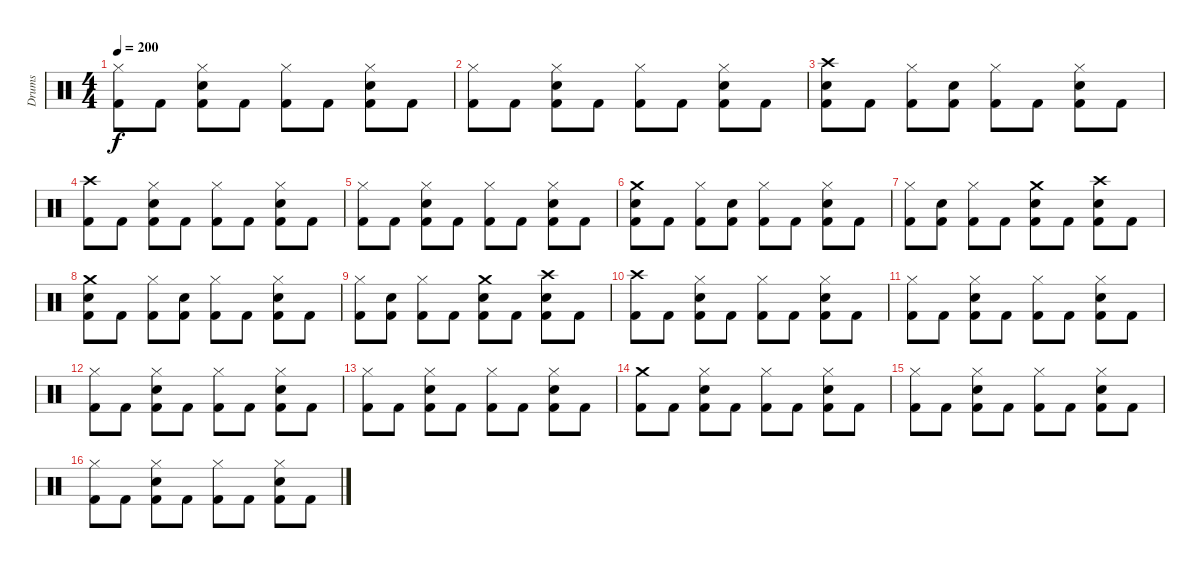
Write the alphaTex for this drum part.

\track ("Drums" "Drums") {instrument percussion}
\staff {score}
\articulation defaults
\ts (4 4)
\tempo 200
\clef neutral
\ks c
("Hi-Hat (closed)" "Kick (hit) 2").8{dy f} "Kick (hit) 2".8 ("Hi-Hat (closed)" "Snare (hit) 2" "Kick (hit) 2").8 "Kick (hit) 2".8 ("Hi-Hat (closed)" "Kick (hit) 2").8 "Kick (hit) 2".8 ("Hi-Hat (closed)" "Snare (hit) 2" "Kick (hit) 2").8 "Kick (hit) 2".8 |
("Hi-Hat (closed)" "Kick (hit) 2").8 "Kick (hit) 2".8 ("Hi-Hat (closed)" "Snare (hit) 2" "Kick (hit) 2").8 "Kick (hit) 2".8 ("Hi-Hat (closed)" "Kick (hit) 2").8 "Kick (hit) 2".8 ("Hi-Hat (closed)" "Snare (hit) 2" "Kick (hit) 2").8 "Kick (hit) 2".8 |
("Crash high (hit)" "Snare (hit) 2" "Kick (hit) 2").8 "Kick (hit) 2".8 ("Hi-Hat (closed)" "Kick (hit) 2").8 ("Snare (hit) 2" "Kick (hit) 2").8 ("Hi-Hat (closed)" "Kick (hit) 2").8 "Kick (hit) 2".8 ("Hi-Hat (closed)" "Snare (hit) 2" "Kick (hit) 2").8 "Kick (hit) 2".8 |
("Crash high (hit)" "Kick (hit) 2").8 "Kick (hit) 2".8 ("Hi-Hat (closed)" "Snare (hit) 2" "Kick (hit) 2").8 "Kick (hit) 2".8 ("Hi-Hat (closed)" "Kick (hit) 2").8 "Kick (hit) 2".8 ("Hi-Hat (closed)" "Snare (hit) 2" "Kick (hit) 2").8 "Kick (hit) 2".8 |
("Hi-Hat (closed)" "Kick (hit) 2").8 "Kick (hit) 2".8 ("Hi-Hat (closed)" "Snare (hit) 2" "Kick (hit) 2").8 "Kick (hit) 2".8 ("Hi-Hat (closed)" "Kick (hit) 2").8 "Kick (hit) 2".8 ("Hi-Hat (closed)" "Snare (hit) 2" "Kick (hit) 2").8 "Kick (hit) 2".8 |
("Crash medium (hit)" "Snare (hit) 2" "Kick (hit) 2").8 "Kick (hit) 2".8 ("Hi-Hat (closed)" "Kick (hit) 2").8 ("Snare (hit) 2" "Kick (hit) 2").8 ("Hi-Hat (closed)" "Kick (hit) 2").8 "Kick (hit) 2".8 ("Hi-Hat (closed)" "Snare (hit) 2" "Kick (hit) 2").8 "Kick (hit) 2".8 |
("Hi-Hat (closed)" "Kick (hit) 2").8 ("Snare (hit) 2" "Kick (hit) 2").8 ("Hi-Hat (closed)" "Kick (hit) 2").8 "Kick (hit) 2".8 ("Crash medium (hit)" "Snare (hit) 2" "Kick (hit) 2").8 "Kick (hit) 2".8 ("Crash high (hit)" "Snare (hit) 2" "Kick (hit) 2").8 "Kick (hit) 2".8 |
("Crash medium (hit)" "Snare (hit) 2" "Kick (hit) 2").8 "Kick (hit) 2".8 ("Hi-Hat (closed)" "Kick (hit) 2").8 ("Snare (hit) 2" "Kick (hit) 2").8 ("Hi-Hat (closed)" "Kick (hit) 2").8 "Kick (hit) 2".8 ("Hi-Hat (closed)" "Snare (hit) 2" "Kick (hit) 2").8 "Kick (hit) 2".8 |
("Hi-Hat (closed)" "Kick (hit) 2").8 ("Snare (hit) 2" "Kick (hit) 2").8 ("Hi-Hat (closed)" "Kick (hit) 2").8 "Kick (hit) 2".8 ("Crash medium (hit)" "Snare (hit) 2" "Kick (hit) 2").8 "Kick (hit) 2".8 ("Crash high (hit)" "Snare (hit) 2" "Kick (hit) 2").8 "Kick (hit) 2".8 |
("Crash high (hit)" "Kick (hit) 2").8 "Kick (hit) 2".8 ("Hi-Hat (closed)" "Snare (hit) 2" "Kick (hit) 2").8 "Kick (hit) 2".8 ("Hi-Hat (closed)" "Kick (hit) 2").8 "Kick (hit) 2".8 ("Hi-Hat (closed)" "Snare (hit) 2" "Kick (hit) 2").8 "Kick (hit) 2".8 |
("Hi-Hat (closed)" "Kick (hit) 2").8 "Kick (hit) 2".8 ("Hi-Hat (closed)" "Snare (hit) 2" "Kick (hit) 2").8 "Kick (hit) 2".8 ("Hi-Hat (closed)" "Kick (hit) 2").8 "Kick (hit) 2".8 ("Hi-Hat (closed)" "Snare (hit) 2" "Kick (hit) 2").8 "Kick (hit) 2".8 |
("Hi-Hat (closed)" "Kick (hit) 2").8 "Kick (hit) 2".8 ("Hi-Hat (closed)" "Snare (hit) 2" "Kick (hit) 2").8 "Kick (hit) 2".8 ("Hi-Hat (closed)" "Kick (hit) 2").8 "Kick (hit) 2".8 ("Hi-Hat (closed)" "Snare (hit) 2" "Kick (hit) 2").8 "Kick (hit) 2".8 |
("Hi-Hat (closed)" "Kick (hit) 2").8 "Kick (hit) 2".8 ("Hi-Hat (closed)" "Snare (hit) 2" "Kick (hit) 2").8 "Kick (hit) 2".8 ("Hi-Hat (closed)" "Kick (hit) 2").8 "Kick (hit) 2".8 ("Hi-Hat (closed)" "Snare (hit) 2" "Kick (hit) 2").8 "Kick (hit) 2".8 |
("Crash medium (hit)" "Kick (hit) 2").8 "Kick (hit) 2".8 ("Hi-Hat (closed)" "Snare (hit) 2" "Kick (hit) 2").8 "Kick (hit) 2".8 ("Hi-Hat (closed)" "Kick (hit) 2").8 "Kick (hit) 2".8 ("Hi-Hat (closed)" "Snare (hit) 2" "Kick (hit) 2").8 "Kick (hit) 2".8 |
("Hi-Hat (closed)" "Kick (hit) 2").8 "Kick (hit) 2".8 ("Hi-Hat (closed)" "Snare (hit) 2" "Kick (hit) 2").8 "Kick (hit) 2".8 ("Hi-Hat (closed)" "Kick (hit) 2").8 "Kick (hit) 2".8 ("Hi-Hat (closed)" "Snare (hit) 2" "Kick (hit) 2").8 "Kick (hit) 2".8 |
("Hi-Hat (closed)" "Kick (hit) 2").8 "Kick (hit) 2".8 ("Hi-Hat (closed)" "Snare (hit) 2" "Kick (hit) 2").8 "Kick (hit) 2".8 ("Hi-Hat (closed)" "Kick (hit) 2").8 "Kick (hit) 2".8 ("Hi-Hat (closed)" "Snare (hit) 2" "Kick (hit) 2").8 "Kick (hit) 2".8
